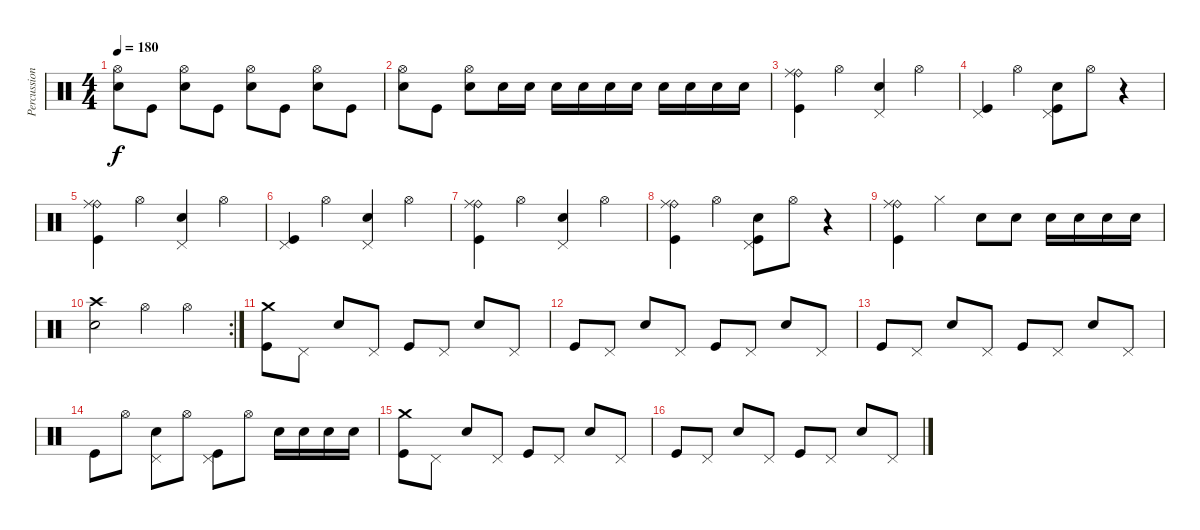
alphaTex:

\track ("Percussions" "Percussion") {instrument percussion}
\staff {score}
\articulation defaults
\ts (4 4)
\tempo 180
\clef neutral
\ks c
("Hi-Hat (open)" "Snare (hit) 2").8{dy f} "Kick (hit)".8 ("Hi-Hat (open)" "Snare (hit) 2").8 "Kick (hit)".8 ("Hi-Hat (open)" "Snare (hit) 2").8 "Kick (hit)".8 ("Hi-Hat (open)" "Snare (hit) 2").8 "Kick (hit)".8 |
("Hi-Hat (open)" "Snare (hit) 2").8 "Kick (hit)".8 ("Hi-Hat (open)" "Snare (hit) 2").8 "Snare (hit) 2".16 "Snare (hit) 2".16 "Snare (hit) 2".16 "Snare (hit) 2".16 "Snare (hit) 2".16 "Snare (hit) 2".16 "Snare (hit) 2".16 "Snare (hit) 2".16 "Snare (hit) 2".16 "Snare (hit) 2".16 |
("Ride (bell)" "Ride (middle)" "Kick (hit)").4 "Hi-Hat (open)".4 ("Pedal Hi-Hat (hit)" "Snare (hit) 2").4 "Hi-Hat (open)".4 |
("Pedal Hi-Hat (hit)" "Kick (hit)").4 "Hi-Hat (open)".4 ("Pedal Hi-Hat (hit)" "Snare (hit) 2" "Kick (hit)").8 "Hi-Hat (open)".8 r.4 |
("Ride (bell)" "Ride (middle)" "Kick (hit)").4 "Hi-Hat (open)".4 ("Pedal Hi-Hat (hit)" "Snare (hit) 2").4 "Hi-Hat (open)".4 |
("Pedal Hi-Hat (hit)" "Kick (hit)").4 "Hi-Hat (open)".4 ("Pedal Hi-Hat (hit)" "Snare (hit) 2").4 "Hi-Hat (open)".4 |
("Ride (bell)" "Ride (middle)" "Kick (hit)").4 "Hi-Hat (open)".4 ("Pedal Hi-Hat (hit)" "Snare (hit) 2").4 "Hi-Hat (open)".4 |
("Ride (bell)" "Ride (middle)" "Kick (hit)").4 "Hi-Hat (open)".4 ("Pedal Hi-Hat (hit)" "Snare (hit) 2" "Kick (hit)").8 "Hi-Hat (open)".8 r.4 |
("Ride (bell)" "Ride (middle)" "Kick (hit)").4 "Hi-Hat (closed)".4 "Snare (hit) 2".8 "Snare (hit) 2".8 "Snare (hit) 2".16 "Snare (hit) 2".16 "Snare (hit) 2".16 "Snare (hit) 2".16 |
\rc 2
("Crash high (hit)" "Snare (hit) 2").2 "Hi-Hat (open)".4 "Hi-Hat (open)".4 |
("Crash medium (hit)" "Kick (hit)").8 "Pedal Hi-Hat (hit)".8 "Snare (hit) 2".8 "Pedal Hi-Hat (hit)".8 "Kick (hit)".8 "Pedal Hi-Hat (hit)".8 "Snare (hit) 2".8 "Pedal Hi-Hat (hit)".8 |
"Kick (hit)".8 "Pedal Hi-Hat (hit)".8 "Snare (hit) 2".8 "Pedal Hi-Hat (hit)".8 "Kick (hit)".8 "Pedal Hi-Hat (hit)".8 "Snare (hit) 2".8 "Pedal Hi-Hat (hit)".8 |
"Kick (hit)".8 "Pedal Hi-Hat (hit)".8 "Snare (hit) 2".8 "Pedal Hi-Hat (hit)".8 "Kick (hit)".8 "Pedal Hi-Hat (hit)".8 "Snare (hit) 2".8 "Pedal Hi-Hat (hit)".8 |
"Kick (hit)".8 "Hi-Hat (open)".8 ("Pedal Hi-Hat (hit)" "Snare (hit) 2").8 "Hi-Hat (open)".8 ("Pedal Hi-Hat (hit)" "Kick (hit)").8 "Hi-Hat (open)".8 "Snare (hit) 2".16 "Snare (hit) 2".16 "Snare (hit) 2".16 "Snare (hit) 2".16 |
("Crash medium (hit)" "Kick (hit)").8 "Pedal Hi-Hat (hit)".8 "Snare (hit) 2".8 "Pedal Hi-Hat (hit)".8 "Kick (hit)".8 "Pedal Hi-Hat (hit)".8 "Snare (hit) 2".8 "Pedal Hi-Hat (hit)".8 |
"Kick (hit)".8 "Pedal Hi-Hat (hit)".8 "Snare (hit) 2".8 "Pedal Hi-Hat (hit)".8 "Kick (hit)".8 "Pedal Hi-Hat (hit)".8 "Snare (hit) 2".8 "Pedal Hi-Hat (hit)".8
